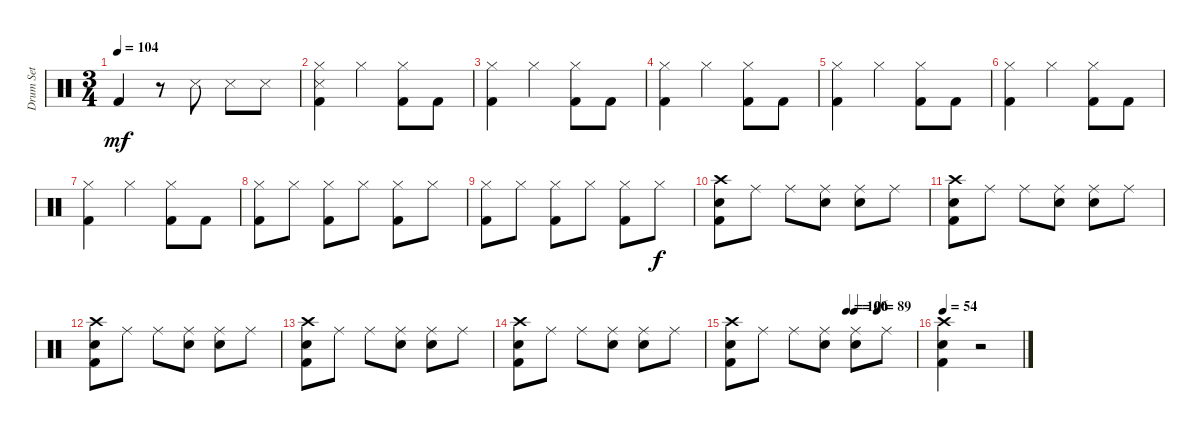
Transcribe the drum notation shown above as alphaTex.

\track ("Drum Set" "Drum Set") {instrument percussion}
\staff {score}
\articulation defaults
\ts (3 4)
\tempo 104
\clef neutral
\ks c "Kick (hit) 2".4{dy mf}
r.8 "Snare (side stick) 3".8 "Snare (side stick) 3".8 "Snare (side stick) 3".8 |
("Kick (hit) 2" "Snare (side stick) 3" "Hi-Hat (closed)").4 "Hi-Hat (closed)".4 ("Hi-Hat (closed)" "Kick (hit) 2").8 "Kick (hit) 2".8 |
("Kick (hit) 2" "Hi-Hat (closed)").4 "Hi-Hat (closed)".4 ("Hi-Hat (closed)" "Kick (hit) 2").8 "Kick (hit) 2".8 |
("Kick (hit) 2" "Hi-Hat (closed)").4 "Hi-Hat (closed)".4 ("Kick (hit) 2" "Hi-Hat (closed)").8 "Kick (hit) 2".8 |
("Kick (hit) 2" "Hi-Hat (closed)").4 "Hi-Hat (closed)".4 ("Kick (hit) 2" "Hi-Hat (closed)").8 "Kick (hit) 2".8 |
("Kick (hit) 2" "Hi-Hat (closed)").4 "Hi-Hat (closed)".4 ("Hi-Hat (closed)" "Kick (hit) 2").8 "Kick (hit) 2".8 |
("Kick (hit) 2" "Hi-Hat (closed)").4 "Hi-Hat (closed)".4 ("Kick (hit) 2" "Hi-Hat (closed)").8 "Kick (hit) 2".8 |
("Kick (hit) 2" "Hi-Hat (closed)").8 "Hi-Hat (closed)".8 ("Kick (hit) 2" "Hi-Hat (closed)").8 "Hi-Hat (closed)".8 ("Kick (hit) 2" "Hi-Hat (closed)").8 "Hi-Hat (closed)".8 |
("Kick (hit) 2" "Hi-Hat (closed)").8 "Hi-Hat (closed)".8 ("Kick (hit) 2" "Hi-Hat (closed)").8 "Hi-Hat (closed)".8 ("Kick (hit) 2" "Hi-Hat (closed)").8 "Hi-Hat (closed)".8{dy f} |
("Kick (hit) 2" "Snare (hit) 2" "Crash high (hit)").8 "Ride (middle)".8 "Ride (middle)".8 ("Snare (hit) 2" "Ride (middle)").8 ("Snare (hit) 2" "Ride (middle)").8 "Ride (middle)".8 |
("Kick (hit) 2" "Snare (hit) 2" "Crash high (hit)").8 "Ride (middle)".8 "Ride (middle)".8 ("Snare (hit) 2" "Ride (middle)").8 ("Snare (hit) 2" "Ride (middle)").8 "Ride (middle)".8 |
("Kick (hit) 2" "Snare (hit) 2" "Crash high (hit)").8 "Ride (middle)".8 "Ride (middle)".8 ("Snare (hit) 2" "Ride (middle)").8 ("Snare (hit) 2" "Ride (middle)").8 "Ride (middle)".8 |
("Kick (hit) 2" "Snare (hit) 2" "Crash high (hit)").8 "Ride (middle)".8 "Ride (middle)".8 ("Snare (hit) 2" "Ride (middle)").8 ("Snare (hit) 2" "Ride (middle)").8 "Ride (middle)".8 |
("Kick (hit) 2" "Snare (hit) 2" "Crash high (hit)").8 "Ride (middle)".8 "Ride (middle)".8 ("Snare (hit) 2" "Ride (middle)").8 ("Snare (hit) 2" "Ride (middle)").8 "Ride (middle)".8 |
\tempo (100 0.625)
\tempo (96 0.6666666666666666)
\tempo (89 0.7916666666666666)
("Kick (hit) 2" "Snare (hit) 2" "Crash high (hit)").8 "Ride (middle)".8 "Ride (middle)".8 ("Ride (middle)" "Snare (hit) 2").8 ("Snare (hit) 2" "Ride (middle)").8 "Ride (middle)".8 |
\tempo 54
("Kick (hit) 2" "Snare (hit) 2" "Crash high (hit)").4 r.2
